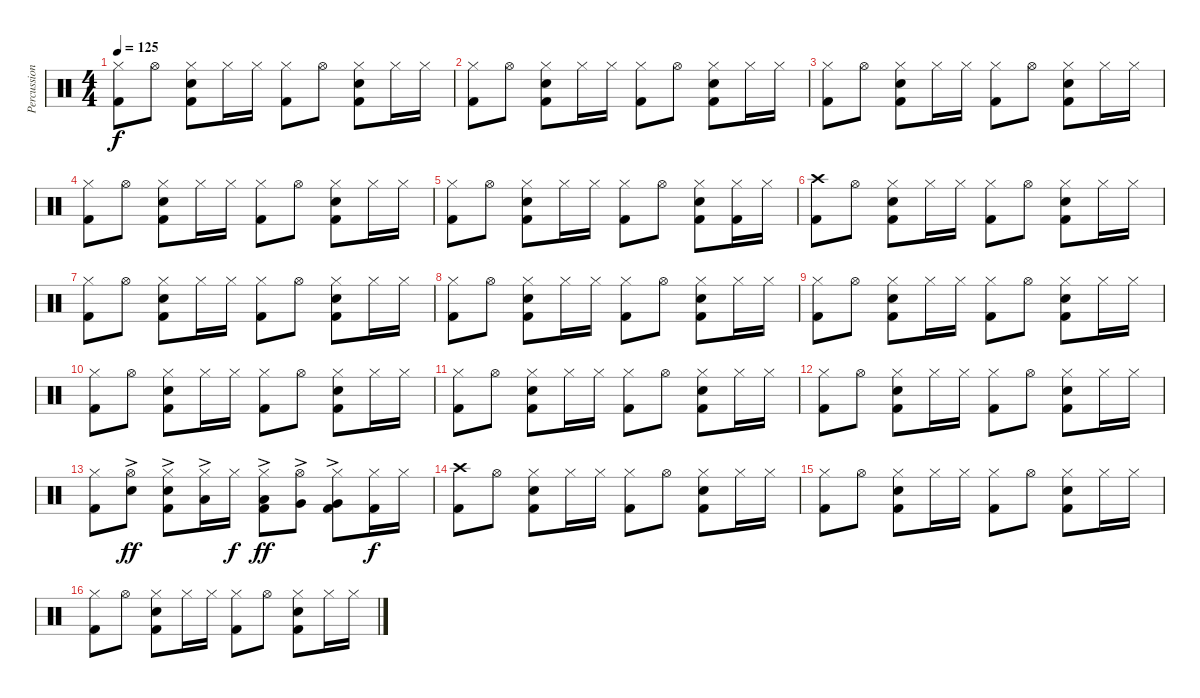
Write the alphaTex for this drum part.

\track ("Percussion" "Percussion") {instrument percussion}
\staff {score}
\articulation defaults
\ts (4 4)
\tempo 125
\clef neutral
\ks c
("Hi-Hat (closed)" "Kick (hit) 2").8{dy f} "Hi-Hat (open)".8 ("Hi-Hat (closed)" "Electric Snare (hit)" "Kick (hit) 2").8 "Hi-Hat (closed)".16 "Hi-Hat (closed)".16 ("Hi-Hat (closed)" "Kick (hit) 2").8 "Hi-Hat (open)".8 ("Hi-Hat (closed)" "Electric Snare (hit)" "Kick (hit) 2").8 "Hi-Hat (closed)".16 "Hi-Hat (closed)".16 |
("Hi-Hat (closed)" "Kick (hit) 2").8 "Hi-Hat (open)".8 ("Hi-Hat (closed)" "Electric Snare (hit)" "Kick (hit) 2").8 "Hi-Hat (closed)".16 "Hi-Hat (closed)".16 ("Hi-Hat (closed)" "Kick (hit) 2").8 "Hi-Hat (open)".8 ("Hi-Hat (closed)" "Electric Snare (hit)" "Kick (hit) 2").8 "Hi-Hat (closed)".16 "Hi-Hat (closed)".16 |
("Hi-Hat (closed)" "Kick (hit) 2").8 "Hi-Hat (open)".8 ("Hi-Hat (closed)" "Electric Snare (hit)" "Kick (hit) 2").8 "Hi-Hat (closed)".16 "Hi-Hat (closed)".16 ("Hi-Hat (closed)" "Kick (hit) 2").8 "Hi-Hat (open)".8 ("Hi-Hat (closed)" "Electric Snare (hit)" "Kick (hit) 2").8 "Hi-Hat (closed)".16 "Hi-Hat (closed)".16 |
("Hi-Hat (closed)" "Kick (hit) 2").8 "Hi-Hat (open)".8 ("Hi-Hat (closed)" "Electric Snare (hit)" "Kick (hit) 2").8 "Hi-Hat (closed)".16 "Hi-Hat (closed)".16 ("Hi-Hat (closed)" "Kick (hit) 2").8 "Hi-Hat (open)".8 ("Hi-Hat (closed)" "Electric Snare (hit)" "Kick (hit) 2").8 "Hi-Hat (closed)".16 "Hi-Hat (closed)".16 |
("Hi-Hat (closed)" "Kick (hit) 2").8 "Hi-Hat (open)".8 ("Hi-Hat (closed)" "Electric Snare (hit)" "Kick (hit) 2").8 "Hi-Hat (closed)".16 "Hi-Hat (closed)".16 ("Hi-Hat (closed)" "Kick (hit) 2").8 "Hi-Hat (open)".8 ("Hi-Hat (closed)" "Electric Snare (hit)" "Kick (hit) 2").8 ("Hi-Hat (closed)" "Kick (hit) 2").16 "Hi-Hat (closed)".16 |
("Crash high (hit)" "Kick (hit) 2").8 "Hi-Hat (open)".8 ("Hi-Hat (closed)" "Electric Snare (hit)" "Kick (hit) 2").8 "Hi-Hat (closed)".16 "Hi-Hat (closed)".16 ("Hi-Hat (closed)" "Kick (hit) 2").8 "Hi-Hat (open)".8 ("Hi-Hat (closed)" "Electric Snare (hit)" "Kick (hit) 2").8 "Hi-Hat (closed)".16 "Hi-Hat (closed)".16 |
("Hi-Hat (closed)" "Kick (hit) 2").8 "Hi-Hat (open)".8 ("Hi-Hat (closed)" "Electric Snare (hit)" "Kick (hit) 2").8 "Hi-Hat (closed)".16 "Hi-Hat (closed)".16 ("Hi-Hat (closed)" "Kick (hit) 2").8 "Hi-Hat (open)".8 ("Hi-Hat (closed)" "Electric Snare (hit)" "Kick (hit) 2").8 "Hi-Hat (closed)".16 "Hi-Hat (closed)".16 |
("Hi-Hat (closed)" "Kick (hit) 2").8 "Hi-Hat (open)".8 ("Hi-Hat (closed)" "Electric Snare (hit)" "Kick (hit) 2").8 "Hi-Hat (closed)".16 "Hi-Hat (closed)".16 ("Hi-Hat (closed)" "Kick (hit) 2").8 "Hi-Hat (open)".8 ("Hi-Hat (closed)" "Electric Snare (hit)" "Kick (hit) 2").8 "Hi-Hat (closed)".16 "Hi-Hat (closed)".16 |
("Hi-Hat (closed)" "Kick (hit) 2").8 "Hi-Hat (open)".8 ("Hi-Hat (closed)" "Electric Snare (hit)" "Kick (hit) 2").8 "Hi-Hat (closed)".16 "Hi-Hat (closed)".16 ("Hi-Hat (closed)" "Kick (hit) 2").8 "Hi-Hat (open)".8 ("Hi-Hat (closed)" "Electric Snare (hit)" "Kick (hit) 2").8 "Hi-Hat (closed)".16 "Hi-Hat (closed)".16 |
("Hi-Hat (closed)" "Kick (hit) 2").8 "Hi-Hat (open)".8 ("Hi-Hat (closed)" "Electric Snare (hit)" "Kick (hit) 2").8 "Hi-Hat (closed)".16 "Hi-Hat (closed)".16 ("Hi-Hat (closed)" "Kick (hit) 2").8 "Hi-Hat (open)".8 ("Hi-Hat (closed)" "Electric Snare (hit)" "Kick (hit) 2").8 "Hi-Hat (closed)".16 "Hi-Hat (closed)".16 |
("Hi-Hat (closed)" "Kick (hit) 2").8 "Hi-Hat (open)".8 ("Hi-Hat (closed)" "Electric Snare (hit)" "Kick (hit) 2").8 "Hi-Hat (closed)".16 "Hi-Hat (closed)".16 ("Hi-Hat (closed)" "Kick (hit) 2").8 "Hi-Hat (open)".8 ("Hi-Hat (closed)" "Electric Snare (hit)" "Kick (hit) 2").8 "Hi-Hat (closed)".16 "Hi-Hat (closed)".16 |
("Hi-Hat (closed)" "Kick (hit) 2").8 "Hi-Hat (open)".8 ("Hi-Hat (closed)" "Electric Snare (hit)" "Kick (hit) 2").8 "Hi-Hat (closed)".16 "Hi-Hat (closed)".16 ("Hi-Hat (closed)" "Kick (hit) 2").8 "Hi-Hat (open)".8 ("Hi-Hat (closed)" "Electric Snare (hit)" "Kick (hit) 2").8 "Hi-Hat (closed)".16 "Hi-Hat (closed)".16 |
("Hi-Hat (closed)" "Kick (hit) 2").8 ("Hi-Hat (open)" "Electric Snare (hit)"{ac}).8{dy ff} ("Hi-Hat (closed)" "Electric Snare (hit)"{ac} "Kick (hit) 2").8 ("Hi-Hat (closed)" "Low Tom (hit)"{ac}).16 "Hi-Hat (closed)".16{dy f} ("Hi-Hat (closed)" "Low Tom (hit)"{ac} "Kick (hit) 2").8{dy ff} ("Hi-Hat (open)" "Very Low Tom (hit)"{ac}).8 ("Hi-Hat (closed)" "Very Low Tom (hit)"{ac} "Kick (hit) 2").8 ("Hi-Hat (closed)" "Kick (hit) 2").16{dy f} "Hi-Hat (closed)".16 |
("Crash high (hit)" "Kick (hit) 2").8 "Hi-Hat (open)".8 ("Hi-Hat (closed)" "Electric Snare (hit)" "Kick (hit) 2").8 "Hi-Hat (closed)".16 "Hi-Hat (closed)".16 ("Hi-Hat (closed)" "Kick (hit) 2").8 "Hi-Hat (open)".8 ("Hi-Hat (closed)" "Electric Snare (hit)" "Kick (hit) 2").8 "Hi-Hat (closed)".16 "Hi-Hat (closed)".16 |
("Hi-Hat (closed)" "Kick (hit) 2").8 "Hi-Hat (open)".8 ("Hi-Hat (closed)" "Electric Snare (hit)" "Kick (hit) 2").8 "Hi-Hat (closed)".16 "Hi-Hat (closed)".16 ("Hi-Hat (closed)" "Kick (hit) 2").8 "Hi-Hat (open)".8 ("Hi-Hat (closed)" "Electric Snare (hit)" "Kick (hit) 2").8 "Hi-Hat (closed)".16 "Hi-Hat (closed)".16 |
("Hi-Hat (closed)" "Kick (hit) 2").8 "Hi-Hat (open)".8 ("Hi-Hat (closed)" "Electric Snare (hit)" "Kick (hit) 2").8 "Hi-Hat (closed)".16 "Hi-Hat (closed)".16 ("Hi-Hat (closed)" "Kick (hit) 2").8 "Hi-Hat (open)".8 ("Hi-Hat (closed)" "Electric Snare (hit)" "Kick (hit) 2").8 "Hi-Hat (closed)".16 "Hi-Hat (closed)".16
